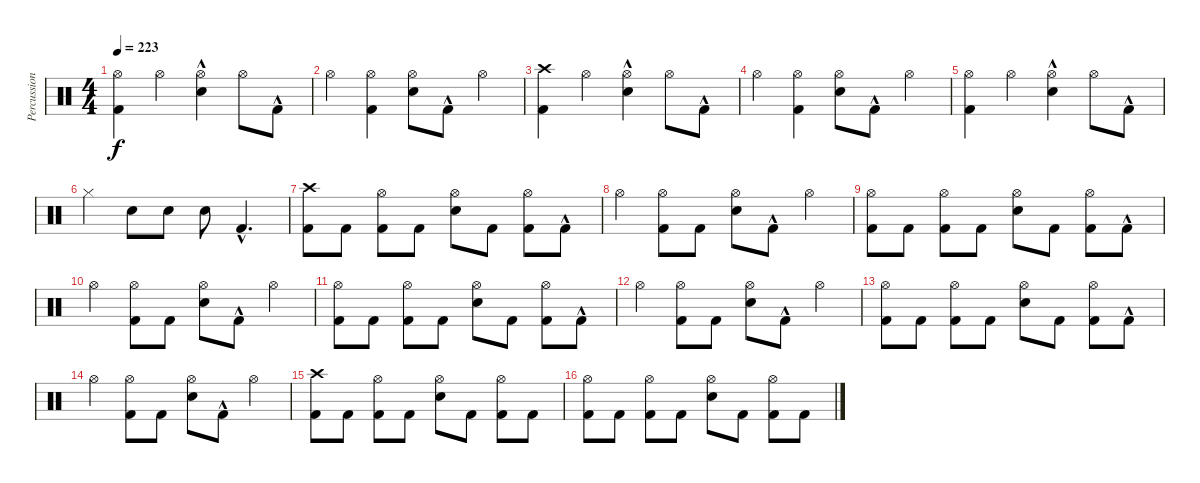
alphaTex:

\track ("Percussion" "Percussion") {instrument percussion}
\staff {score}
\articulation defaults
\ts (4 4)
\tempo 223
\clef neutral
\ks c
("Hi-Hat (open)" "Kick (hit) 2").4{dy f} "Hi-Hat (open)".4 ("Hi-Hat (open)" "Electric Snare (hit)"{hac}).4 "Hi-Hat (open)".8 "Kick (hit) 2"{hac}.8 |
"Hi-Hat (open)".4 ("Hi-Hat (open)" "Kick (hit) 2").4 ("Hi-Hat (open)" "Electric Snare (hit)").8 "Kick (hit) 2"{hac}.8 "Hi-Hat (open)".4 |
("Crash high (hit)" "Kick (hit) 2").4 "Hi-Hat (open)".4 ("Hi-Hat (open)" "Electric Snare (hit)"{hac}).4 "Hi-Hat (open)".8 "Kick (hit) 2"{hac}.8 |
"Hi-Hat (open)".4 ("Hi-Hat (open)" "Kick (hit) 2").4 ("Hi-Hat (open)" "Electric Snare (hit)").8 "Kick (hit) 2"{hac}.8 "Hi-Hat (open)".4 |
("Hi-Hat (open)" "Kick (hit) 2").4 "Hi-Hat (open)".4 ("Hi-Hat (open)" "Electric Snare (hit)"{hac}).4 "Hi-Hat (open)".8 "Kick (hit) 2"{hac}.8 |
"Hi-Hat (closed)".4 "Electric Snare (hit)".8 "Electric Snare (hit)".8 "Electric Snare (hit)".8 "Kick (hit) 2"{hac}.4{d} |
("Kick (hit) 2" "Crash high (hit)").8 "Kick (hit) 2".8 ("Hi-Hat (open)" "Kick (hit) 2").8 "Kick (hit) 2".8 ("Hi-Hat (open)" "Electric Snare (hit)").8 "Kick (hit) 2".8 ("Hi-Hat (open)" "Kick (hit) 2").8 "Kick (hit) 2"{hac}.8 |
"Hi-Hat (open)".4 ("Hi-Hat (open)" "Kick (hit) 2").8 "Kick (hit) 2".8 ("Hi-Hat (open)" "Electric Snare (hit)").8 "Kick (hit) 2"{hac}.8 "Hi-Hat (open)".4 |
("Hi-Hat (open)" "Kick (hit) 2").8 "Kick (hit) 2".8 ("Hi-Hat (open)" "Kick (hit) 2").8 "Kick (hit) 2".8 ("Hi-Hat (open)" "Electric Snare (hit)").8 "Kick (hit) 2".8 ("Hi-Hat (open)" "Kick (hit) 2").8 "Kick (hit) 2"{hac}.8 |
"Hi-Hat (open)".4 ("Hi-Hat (open)" "Kick (hit) 2").8 "Kick (hit) 2".8 ("Hi-Hat (open)" "Electric Snare (hit)").8 "Kick (hit) 2"{hac}.8 "Hi-Hat (open)".4 |
("Kick (hit) 2" "Hi-Hat (open)").8 "Kick (hit) 2".8 ("Hi-Hat (open)" "Kick (hit) 2").8 "Kick (hit) 2".8 ("Hi-Hat (open)" "Electric Snare (hit)").8 "Kick (hit) 2".8 ("Hi-Hat (open)" "Kick (hit) 2").8 "Kick (hit) 2"{hac}.8 |
"Hi-Hat (open)".4 ("Hi-Hat (open)" "Kick (hit) 2").8 "Kick (hit) 2".8 ("Hi-Hat (open)" "Electric Snare (hit)").8 "Kick (hit) 2"{hac}.8 "Hi-Hat (open)".4 |
("Hi-Hat (open)" "Kick (hit) 2").8 "Kick (hit) 2".8 ("Hi-Hat (open)" "Kick (hit) 2").8 "Kick (hit) 2".8 ("Hi-Hat (open)" "Electric Snare (hit)").8 "Kick (hit) 2".8 ("Hi-Hat (open)" "Kick (hit) 2").8 "Kick (hit) 2"{hac}.8 |
"Hi-Hat (open)".4 ("Hi-Hat (open)" "Kick (hit) 2").8 "Kick (hit) 2".8 ("Hi-Hat (open)" "Electric Snare (hit)").8 "Kick (hit) 2"{hac}.8 "Hi-Hat (open)".4 |
("Crash high (hit)" "Kick (hit) 2").8 "Kick (hit) 2".8 ("Hi-Hat (open)" "Kick (hit) 2").8 "Kick (hit) 2".8 ("Hi-Hat (open)" "Electric Snare (hit)").8 "Kick (hit) 2".8 ("Hi-Hat (open)" "Kick (hit) 2").8 "Kick (hit) 2".8 |
("Hi-Hat (open)" "Kick (hit) 2").8 "Kick (hit) 2".8 ("Hi-Hat (open)" "Kick (hit) 2").8 "Kick (hit) 2".8 ("Hi-Hat (open)" "Electric Snare (hit)").8 "Kick (hit) 2".8 ("Hi-Hat (open)" "Kick (hit) 2").8 "Kick (hit) 2".8
